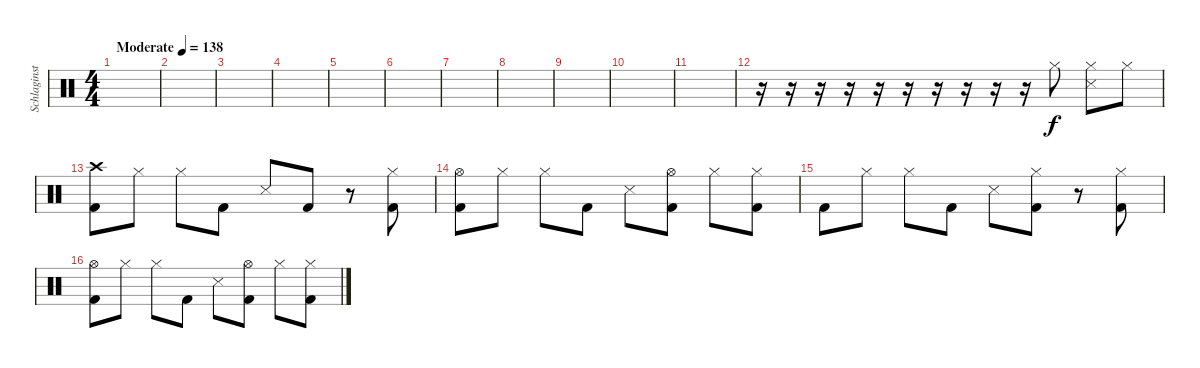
\track ("Schlaginstrumente - Auswahl" "Schlaginst") {instrument percussion}
\staff {score}
\articulation defaults
\ts (4 4)
\tempo (138 "Moderate")
\clef neutral
\ks c
|
|
|
|
|
|
|
|
|
|
|
r.16 r.16 r.16 r.16 r.16 r.16 r.16 r.16 r.16 r.16 "Hi-Hat (closed)".8 ("Snare (side stick) 3" "Hi-Hat (closed)").8 "Hi-Hat (closed)".8 |
("Crash high (hit)" "Kick (hit) 2").8 "Hi-Hat (closed)".8 "Hi-Hat (closed)".8 "Kick (hit) 2".8 "Snare (side stick) 3".8 "Kick (hit) 2".8 r.8 ("Hi-Hat (closed)" "Kick (hit) 2").8 |
("Hi-Hat (open)" "Kick (hit) 2").8 "Hi-Hat (closed)".8 "Hi-Hat (closed)".8 "Kick (hit) 2".8 "Snare (side stick) 3".8 ("Hi-Hat (open)" "Kick (hit) 2").8 "Hi-Hat (closed)".8 ("Hi-Hat (closed)" "Kick (hit) 2").8 |
"Kick (hit) 2".8 "Hi-Hat (closed)".8 "Hi-Hat (closed)".8 "Kick (hit) 2".8 "Snare (side stick) 3".8 ("Hi-Hat (closed)" "Kick (hit) 2").8 r.8 ("Hi-Hat (closed)" "Kick (hit) 2").8 |
("Hi-Hat (open)" "Kick (hit) 2").8 "Hi-Hat (closed)".8 "Hi-Hat (closed)".8 "Kick (hit) 2".8 "Snare (side stick) 3".8 ("Hi-Hat (open)" "Kick (hit) 2").8 "Hi-Hat (closed)".8 ("Hi-Hat (closed)" "Kick (hit) 2").8
